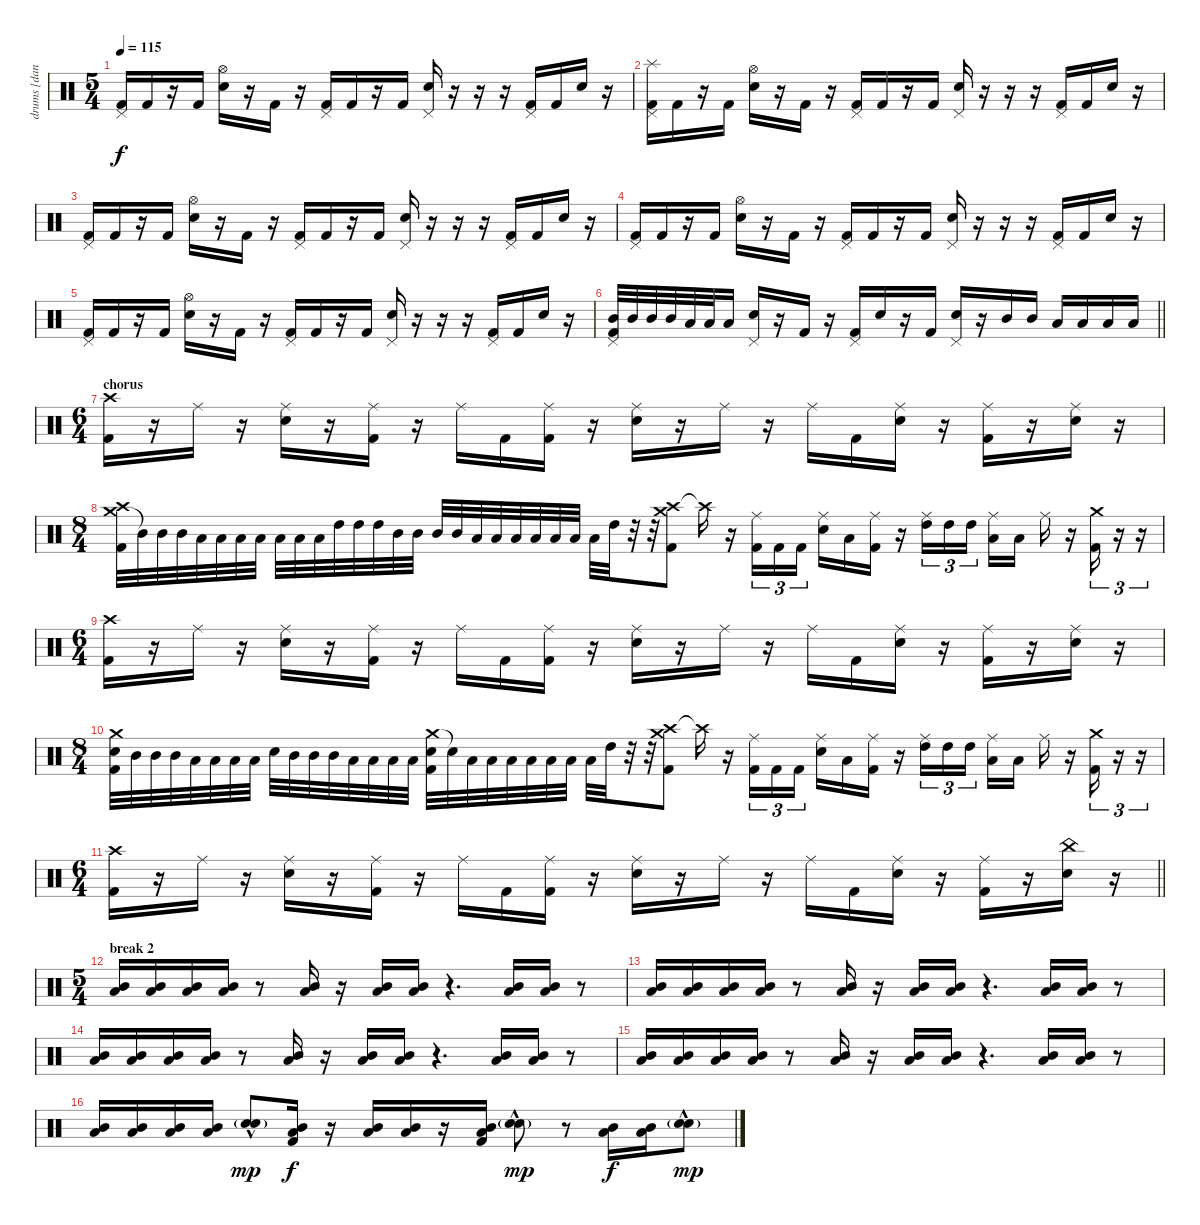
\track ("drums [danny carey]" "drums [dan") {instrument percussion}
\staff {score}
\articulation defaults
\ts (5 4)
\tempo 115
\clef neutral
\ks c
("Pedal Hi-Hat (hit)" "Kick (hit) 2").16{dy f} "Kick (hit) 2".16 r.16 "Kick (hit) 2".16 ("Hi-Hat (open)" "Electric Snare (hit)").16 r.16 "Kick (hit) 2".16 r.16 ("Pedal Hi-Hat (hit)" "Kick (hit) 2").16 "Kick (hit) 2".16 r.16 "Kick (hit) 2".16 ("Pedal Hi-Hat (hit)" "Electric Snare (hit)").16 r.16 r.16 r.16 ("Pedal Hi-Hat (hit)" "Kick (hit) 2").16 "Kick (hit) 2".16 "Electric Snare (hit)".16 r.16 |
("Splash (hit)" "Pedal Hi-Hat (hit)" "Kick (hit) 2").16 "Kick (hit) 2".16 r.16 "Kick (hit) 2".16 ("Hi-Hat (open)" "Electric Snare (hit)").16 r.16 "Kick (hit) 2".16 r.16 ("Pedal Hi-Hat (hit)" "Kick (hit) 2").16 "Kick (hit) 2".16 r.16 "Kick (hit) 2".16 ("Pedal Hi-Hat (hit)" "Electric Snare (hit)").16 r.16 r.16 r.16 ("Pedal Hi-Hat (hit)" "Kick (hit) 2").16 "Kick (hit) 2".16 "Electric Snare (hit)".16 r.16 |
("Pedal Hi-Hat (hit)" "Kick (hit) 2").16 "Kick (hit) 2".16 r.16 "Kick (hit) 2".16 ("Hi-Hat (open)" "Electric Snare (hit)").16 r.16 "Kick (hit) 2".16 r.16 ("Pedal Hi-Hat (hit)" "Kick (hit) 2").16 "Kick (hit) 2".16 r.16 "Kick (hit) 2".16 ("Pedal Hi-Hat (hit)" "Electric Snare (hit)").16 r.16 r.16 r.16 ("Pedal Hi-Hat (hit)" "Kick (hit) 2").16 "Kick (hit) 2".16 "Electric Snare (hit)".16 r.16 |
("Pedal Hi-Hat (hit)" "Kick (hit) 2").16 "Kick (hit) 2".16 r.16 "Kick (hit) 2".16 ("Hi-Hat (open)" "Electric Snare (hit)").16 r.16 "Kick (hit) 2".16 r.16 ("Pedal Hi-Hat (hit)" "Kick (hit) 2").16 "Kick (hit) 2".16 r.16 "Kick (hit) 2".16 ("Pedal Hi-Hat (hit)" "Electric Snare (hit)").16 r.16 r.16 r.16 ("Pedal Hi-Hat (hit)" "Kick (hit) 2").16 "Kick (hit) 2".16 "Electric Snare (hit)".16 r.16 |
("Pedal Hi-Hat (hit)" "Kick (hit) 2").16 "Kick (hit) 2".16 r.16 "Kick (hit) 2".16 ("Hi-Hat (open)" "Electric Snare (hit)").16 r.16 "Kick (hit) 2".16 r.16 ("Pedal Hi-Hat (hit)" "Kick (hit) 2").16 "Kick (hit) 2".16 r.16 "Kick (hit) 2".16 ("Pedal Hi-Hat (hit)" "Electric Snare (hit)").16 r.16 r.16 r.16 ("Pedal Hi-Hat (hit)" "Kick (hit) 2").16 "Kick (hit) 2".16 "Electric Snare (hit)".16 r.16 |
\barLineRight lightlight
("Pedal Hi-Hat (hit)" "Mid Tom (hit)" "Kick (hit) 2").32 "Mid Tom (hit)".32 "Mid Tom (hit)".32 "Mid Tom (hit)".32 "Low Tom (hit)".32 "Low Tom (hit)".32 "Low Tom (hit)".16 ("Pedal Hi-Hat (hit)" "Electric Snare (hit)").16 r.16 "Kick (hit) 2".16 r.16 ("Pedal Hi-Hat (hit)" "Kick (hit) 2").16 "Electric Snare (hit)".16 r.16 "Kick (hit) 2".16 ("Pedal Hi-Hat (hit)" "Electric Snare (hit)").16 r.16 "Mid Tom (hit)".16 "Mid Tom (hit)".16 "Low Tom (hit)".16 "Low Tom (hit)".16 "Low Tom (hit)".16 "Low Tom (hit)".16 |
\ts (6 4)
\section ("" "chorus")
("Crash high (hit)" "Kick (hit) 2").16 r.16 "Ride (middle)".16 r.16 ("Ride (middle)" "Electric Snare (hit)").16 r.16 ("Ride (middle)" "Kick (hit) 2").16 r.16 "Ride (middle)".16 "Kick (hit) 2".16 ("Ride (middle)" "Kick (hit) 2").16 r.16 ("Ride (middle)" "Electric Snare (hit)").16 r.16 "Ride (middle)".16 r.16 "Ride (middle)".16 "Kick (hit) 2".16 ("Ride (middle)" "Electric Snare (hit)").16 r.16 ("Ride (middle)" "Kick (hit) 2").16 r.16 ("Ride (middle)" "Electric Snare (hit)").16 r.16 |
\ts (8 4)
("Crash medium (hit)" "Crash high (hit)" "Kick (hit) 2").32 "Mid Tom (hit)"{t}.32 "Mid Tom (hit)".32 "Mid Tom (hit)".32 "Low Tom (hit)".32 "Low Tom (hit)".32 "Low Tom (hit)".32 "Low Tom (hit)".32 "Low Floor Tom (hit)".32 "Low Floor Tom (hit)".32 "Low Floor Tom (hit)".32 "High Tom (hit)".32 "High Tom (hit)".32 "High Tom (hit)".32 "Mid Tom (hit)".32 "Mid Tom (hit)".32 "Mid Tom (hit)".32 "Mid Tom (hit)".32 "Low Tom (hit)".32 "Low Tom (hit)".32 "Low Tom (hit)".32 "Low Tom (hit)".32 "Low Floor Tom (hit)".32 "Low Floor Tom (hit)".32 "Low Floor Tom (hit)".32 "High Tom (hit)".32 r.32 r.32 ("Crash high (hit)" "Crash medium (hit)" "Kick (hit) 2").8 "Crash high (hit)"{t}.16 r.16 ("Ride (middle)" "Kick (hit) 2").16{tu (3 2)} "Kick (hit) 2".16{tu (3 2)} "Kick (hit) 2".16{tu (3 2)} ("Ride (middle)" "Electric Snare (hit)").16 "Low Tom (hit)".16 ("Ride (middle)" "Kick (hit) 2").16 r.16 ("Ride (middle)" "High Tom (hit)").16{tu (3 2)} "High Tom (hit)".16{tu (3 2)} "High Tom (hit)".16{tu (3 2) beam splitsecondary} ("Ride (middle)" "Low Tom (hit)").16 "Low Tom (hit)".16 "Ride (middle)".16 r.16 ("Crash medium (hit)" "Kick (hit) 2").16{tu (3 2)} r.16{tu (3 2)} r.16{tu (3 2)} |
\ts (6 4)
("Crash high (hit)" "Kick (hit) 2").16 r.16 "Ride (middle)".16 r.16 ("Ride (middle)" "Electric Snare (hit)").16 r.16 ("Ride (middle)" "Kick (hit) 2").16 r.16 "Ride (middle)".16 "Kick (hit) 2".16 ("Ride (middle)" "Kick (hit) 2").16 r.16 ("Ride (middle)" "Electric Snare (hit)").16 r.16 "Ride (middle)".16 r.16 "Ride (middle)".16 "Kick (hit) 2".16 ("Ride (middle)" "Electric Snare (hit)").16 r.16 ("Ride (middle)" "Kick (hit) 2").16 r.16 ("Ride (middle)" "Electric Snare (hit)").16 r.16 |
\ts (8 4)
("Crash medium (hit)" "Electric Snare (hit)" "Kick (hit) 2").32 "Mid Tom (hit)".32 "Mid Tom (hit)".32 "Mid Tom (hit)".32 "Low Tom (hit)".32 "Low Tom (hit)".32 "Low Tom (hit)".32 "Low Tom (hit)".32 "Electric Snare (hit)".32 "Mid Tom (hit)".32 "Mid Tom (hit)".32 "Mid Tom (hit)".32 "Low Tom (hit)".32 "Low Tom (hit)".32 "Low Tom (hit)".32 "Low Tom (hit)".32 ("Crash medium (hit)" "Electric Snare (hit)" "Kick (hit) 2").32 "Snare (hit)"{t}.32 "Low Tom (hit)".32 "Low Tom (hit)".32 "Low Tom (hit)".32 "Low Tom (hit)".32 "Low Floor Tom (hit)".32 "Low Floor Tom (hit)".32 "Low Floor Tom (hit)".32 "High Tom (hit)".32 r.32 r.32 ("Crash high (hit)" "Crash medium (hit)" "Kick (hit) 2").8 "Crash high (hit)"{t}.16 r.16 ("Ride (middle)" "Kick (hit) 2").16{tu (3 2)} "Kick (hit) 2".16{tu (3 2)} "Kick (hit) 2".16{tu (3 2)} ("Ride (middle)" "Electric Snare (hit)").16 "Low Tom (hit)".16 ("Ride (middle)" "Kick (hit) 2").16 r.16 ("Ride (middle)" "High Tom (hit)").16{tu (3 2)} "High Tom (hit)".16{tu (3 2)} "High Tom (hit)".16{tu (3 2) beam splitsecondary} ("Ride (middle)" "Low Tom (hit)").16 "Low Tom (hit)".16 "Ride (middle)".16 r.16 ("Crash medium (hit)" "Kick (hit) 2").16{tu (3 2)} r.16{tu (3 2)} r.16{tu (3 2)} |
\ts (6 4)
\barLineRight lightlight
("Crash high (hit)" "Kick (hit) 2").16 r.16 "Ride (middle)".16 r.16 ("Ride (middle)" "Electric Snare (hit)").16 r.16 ("Ride (middle)" "Kick (hit) 2").16 r.16 "Ride (middle)".16 "Kick (hit) 2".16 ("Ride (middle)" "Kick (hit) 2").16 r.16 ("Ride (middle)" "Electric Snare (hit)").16 r.16 "Ride (middle)".16 r.16 "Ride (middle)".16 "Kick (hit) 2".16 ("Ride (middle)" "Electric Snare (hit)").16 r.16 ("Ride (middle)" "Kick (hit) 2").16 r.16 ("China (hit)" "Electric Snare (hit)").16 r.16 |
\ts (5 4)
\section ("" "break 2")
("Mid Tom (hit)" "Low Tom (hit)").16{volume 16} ("Mid Tom (hit)" "Low Tom (hit)").16 ("Mid Tom (hit)" "Low Tom (hit)").16 ("Mid Tom (hit)" "Low Tom (hit)").16 r.8 ("Mid Tom (hit)" "Low Tom (hit)").16 r.16 ("Mid Tom (hit)" "Low Tom (hit)").16 ("Mid Tom (hit)" "Low Tom (hit)").16 r.4{d} ("Mid Tom (hit)" "Low Tom (hit)").16 ("Mid Tom (hit)" "Low Tom (hit)").16 r.8 |
("Mid Tom (hit)" "Low Tom (hit)").16 ("Mid Tom (hit)" "Low Tom (hit)").16 ("Mid Tom (hit)" "Low Tom (hit)").16 ("Mid Tom (hit)" "Low Tom (hit)").16 r.8 ("Mid Tom (hit)" "Low Tom (hit)").16 r.16 ("Mid Tom (hit)" "Low Tom (hit)").16 ("Mid Tom (hit)" "Low Tom (hit)").16 r.4{d} ("Mid Tom (hit)" "Low Tom (hit)").16 ("Mid Tom (hit)" "Low Tom (hit)").16 r.8 |
("Mid Tom (hit)" "Low Tom (hit)").16 ("Mid Tom (hit)" "Low Tom (hit)").16 ("Mid Tom (hit)" "Low Tom (hit)").16 ("Mid Tom (hit)" "Low Tom (hit)").16 r.8 ("Mid Tom (hit)" "Low Tom (hit)").16 r.16 ("Mid Tom (hit)" "Low Tom (hit)").16 ("Mid Tom (hit)" "Low Tom (hit)").16 r.4{d} ("Mid Tom (hit)" "Low Tom (hit)").16 ("Mid Tom (hit)" "Low Tom (hit)").16 r.8 |
("Mid Tom (hit)" "Low Tom (hit)").16 ("Mid Tom (hit)" "Low Tom (hit)").16 ("Mid Tom (hit)" "Low Tom (hit)").16 ("Mid Tom (hit)" "Low Tom (hit)").16 r.8 ("Mid Tom (hit)" "Low Tom (hit)").16 r.16 ("Mid Tom (hit)" "Low Tom (hit)").16 ("Mid Tom (hit)" "Low Tom (hit)").16 r.4{d} ("Mid Tom (hit)" "Low Tom (hit)").16 ("Mid Tom (hit)" "Low Tom (hit)").16 r.8 |
("Mid Tom (hit)" "Low Tom (hit)").16{volume 16} ("Mid Tom (hit)" "Low Tom (hit)").16 ("Mid Tom (hit)" "Low Tom (hit)").16 ("Mid Tom (hit)" "Low Tom (hit)").16 ("Electric Snare (hit)"{hac} "Snare (hit) 2"{g}).8{dy mp} ("Mid Tom (hit)" "Low Tom (hit)" "Kick (hit) 2").16{dy f} r.16 ("Mid Tom (hit)" "Low Tom (hit)").16 ("Mid Tom (hit)" "Low Tom (hit)").16 r.16 ("Mid Tom (hit)" "Low Tom (hit)" "Kick (hit) 2").16 ("Electric Snare (hit)"{hac} "Snare (hit) 2"{g}).8{dy mp} r.8 ("Mid Tom (hit)" "Low Tom (hit)").16{dy f} ("Mid Tom (hit)" "Low Tom (hit)").16 ("Electric Snare (hit)"{hac} "Snare (hit) 2"{g}).8{dy mp}
